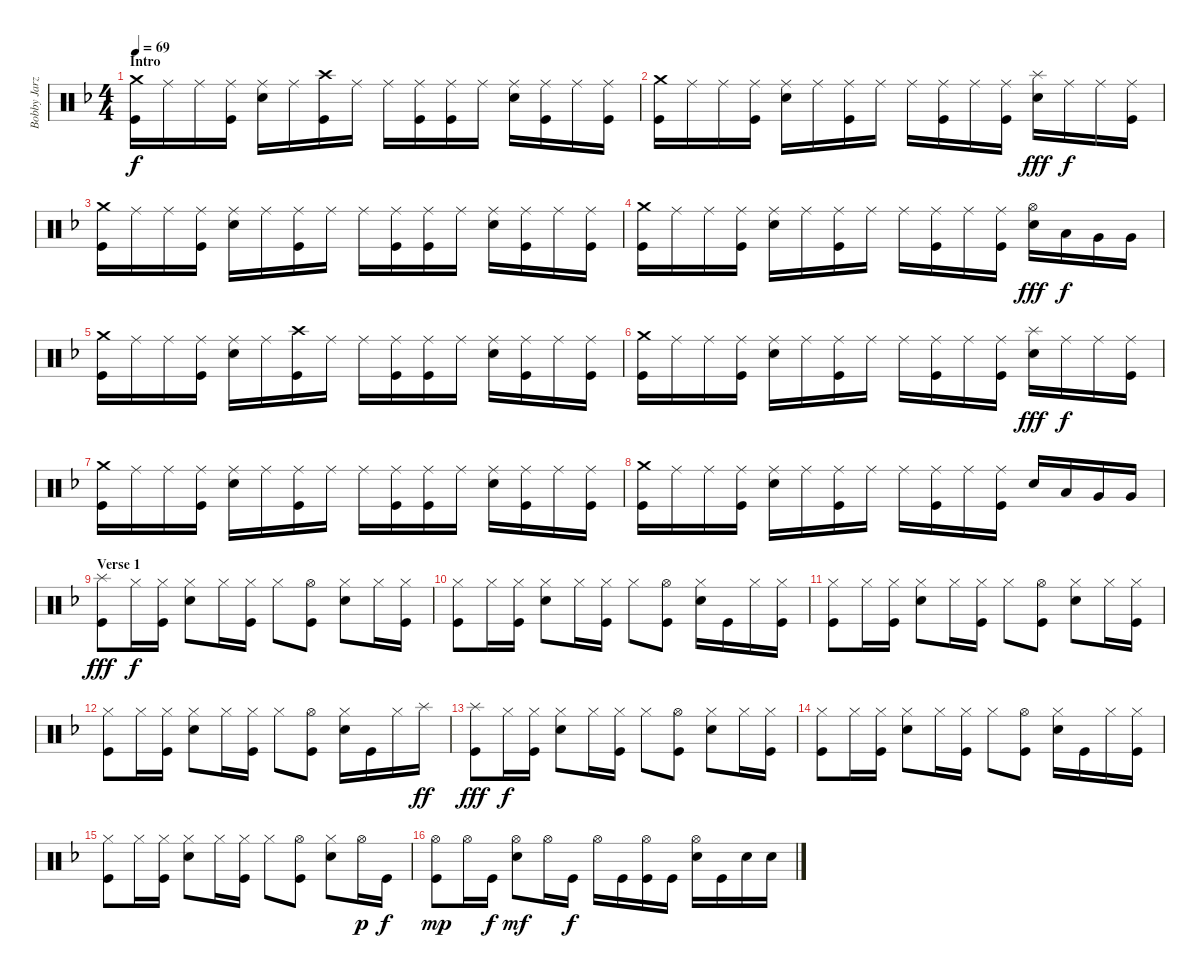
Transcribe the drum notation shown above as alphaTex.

\track ("Bobby Jarzombek" "Bobby Jarz") {instrument percussion}
\staff {score}
\articulation defaults
\ts (4 4)
\section ("" "Intro")
\tempo 69
\clef neutral
\ks dminor
("Crash medium (hit)" "Kick (hit)").16{dy f} "Ride (middle)".16 "Ride (middle)".16 ("Ride (middle)" "Kick (hit)").16 ("Ride (middle)" "Electric Snare (hit)").16 "Ride (middle)".16 ("Crash high (hit)" "Kick (hit)").16 "Ride (middle)".16 "Ride (middle)".16 ("Ride (middle)" "Kick (hit)").16 ("Ride (middle)" "Kick (hit)").16 "Ride (middle)".16 ("Ride (middle)" "Electric Snare (hit)").16 ("Ride (middle)" "Kick (hit)").16 "Ride (middle)".16 ("Ride (middle)" "Kick (hit)").16 |
("Crash medium (hit)" "Kick (hit)").16 "Ride (middle)".16 "Ride (middle)".16 ("Ride (middle)" "Kick (hit)").16 ("Ride (middle)" "Electric Snare (hit)").16 "Ride (middle)".16 ("Ride (middle)" "Kick (hit)").16 "Ride (middle)".16 "Ride (middle)".16 ("Ride (middle)" "Kick (hit)").16 "Ride (middle)".16 ("Ride (middle)" "Kick (hit)").16 ("Splash (hit)" "Electric Snare (hit)").16{dy fff} "Ride (middle)".16{dy f} "Ride (middle)".16 ("Ride (middle)" "Kick (hit)").16 |
("Crash medium (hit)" "Kick (hit)").16 "Ride (middle)".16 "Ride (middle)".16 ("Ride (middle)" "Kick (hit)").16 ("Ride (middle)" "Electric Snare (hit)").16 "Ride (middle)".16 ("Ride (middle)" "Kick (hit)").16 "Ride (middle)".16 "Ride (middle)".16 ("Ride (middle)" "Kick (hit)").16 ("Ride (middle)" "Kick (hit)").16 "Ride (middle)".16 ("Ride (middle)" "Electric Snare (hit)").16 ("Ride (middle)" "Kick (hit)").16 "Ride (middle)".16 ("Ride (middle)" "Kick (hit)").16 |
("Crash medium (hit)" "Kick (hit)").16 "Ride (middle)".16 "Ride (middle)".16 ("Ride (middle)" "Kick (hit)").16 ("Ride (middle)" "Electric Snare (hit)").16 "Ride (middle)".16 ("Ride (middle)" "Kick (hit)").16 "Ride (middle)".16 "Ride (middle)".16 ("Ride (middle)" "Kick (hit)").16 "Ride (middle)".16 ("Ride (middle)" "Kick (hit)").16 ("Hi-Hat (open)" "Electric Snare (hit)").16{dy fff} "Low Tom (hit)".16{dy f} "Very Low Tom (hit)".16 "Very Low Tom (hit)".16 |
("Crash medium (hit)" "Kick (hit)").16 "Ride (middle)".16 "Ride (middle)".16 ("Ride (middle)" "Kick (hit)").16 ("Ride (middle)" "Electric Snare (hit)").16 "Ride (middle)".16 ("Crash high (hit)" "Kick (hit)").16 "Ride (middle)".16 "Ride (middle)".16 ("Ride (middle)" "Kick (hit)").16 ("Ride (middle)" "Kick (hit)").16 "Ride (middle)".16 ("Ride (middle)" "Electric Snare (hit)").16 ("Ride (middle)" "Kick (hit)").16 "Ride (middle)".16 ("Ride (middle)" "Kick (hit)").16 |
("Crash medium (hit)" "Kick (hit)").16 "Ride (middle)".16 "Ride (middle)".16 ("Ride (middle)" "Kick (hit)").16 ("Ride (middle)" "Electric Snare (hit)").16 "Ride (middle)".16 ("Ride (middle)" "Kick (hit)").16 "Ride (middle)".16 "Ride (middle)".16 ("Ride (middle)" "Kick (hit)").16 "Ride (middle)".16 ("Ride (middle)" "Kick (hit)").16 ("Splash (hit)" "Electric Snare (hit)").16{dy fff} "Ride (middle)".16{dy f} "Ride (middle)".16 ("Ride (middle)" "Kick (hit)").16 |
("Crash medium (hit)" "Kick (hit)").16 "Ride (middle)".16 "Ride (middle)".16 ("Ride (middle)" "Kick (hit)").16 ("Ride (middle)" "Electric Snare (hit)").16 "Ride (middle)".16 ("Ride (middle)" "Kick (hit)").16 "Ride (middle)".16 "Ride (middle)".16 ("Ride (middle)" "Kick (hit)").16 ("Ride (middle)" "Kick (hit)").16 "Ride (middle)".16 ("Ride (middle)" "Electric Snare (hit)").16 ("Ride (middle)" "Kick (hit)").16 "Ride (middle)".16 ("Ride (middle)" "Kick (hit)").16 |
("Crash medium (hit)" "Kick (hit)").16 "Ride (middle)".16 "Ride (middle)".16 ("Ride (middle)" "Kick (hit)").16 ("Ride (middle)" "Electric Snare (hit)").16 "Ride (middle)".16 ("Ride (middle)" "Kick (hit)").16 "Ride (middle)".16 "Ride (middle)".16 ("Ride (middle)" "Kick (hit)").16 "Ride (middle)".16 ("Ride (middle)" "Kick (hit)").16 "Electric Snare (hit)".16 "Low Tom (hit)".16 "Very Low Tom (hit)".16 "Very Low Tom (hit)".16 |
\section ("" "Verse 1")
("Splash (hit)" "Kick (hit)").8{dy fff} "Hi-Hat (closed)".16{dy f} ("Hi-Hat (closed)" "Kick (hit)").16 ("Hi-Hat (closed)" "Electric Snare (hit)").8 "Hi-Hat (closed)".16 ("Hi-Hat (closed)" "Kick (hit)").16 "Hi-Hat (closed)".8 ("Hi-Hat (open)" "Kick (hit)").8 ("Hi-Hat (closed)" "Electric Snare (hit)").8 "Hi-Hat (closed)".16 ("Hi-Hat (closed)" "Kick (hit)").16 |
("Hi-Hat (closed)" "Kick (hit)").8 "Hi-Hat (closed)".16 ("Hi-Hat (closed)" "Kick (hit)").16 ("Hi-Hat (closed)" "Electric Snare (hit)").8 "Hi-Hat (closed)".16 ("Hi-Hat (closed)" "Kick (hit)").16 "Hi-Hat (closed)".8 ("Hi-Hat (open)" "Kick (hit)").8 ("Hi-Hat (closed)" "Electric Snare (hit)").16 "Kick (hit)".16 "Hi-Hat (closed)".16 ("Hi-Hat (closed)" "Kick (hit)").16 |
("Hi-Hat (closed)" "Kick (hit)").8 "Hi-Hat (closed)".16 ("Hi-Hat (closed)" "Kick (hit)").16 ("Hi-Hat (closed)" "Electric Snare (hit)").8 "Hi-Hat (closed)".16 ("Hi-Hat (closed)" "Kick (hit)").16 "Hi-Hat (closed)".8 ("Hi-Hat (open)" "Kick (hit)").8 ("Hi-Hat (closed)" "Electric Snare (hit)").8 "Hi-Hat (closed)".16 ("Hi-Hat (closed)" "Kick (hit)").16 |
("Hi-Hat (closed)" "Kick (hit)").8 "Hi-Hat (closed)".16 ("Hi-Hat (closed)" "Kick (hit)").16 ("Hi-Hat (closed)" "Electric Snare (hit)").8 "Hi-Hat (closed)".16 ("Hi-Hat (closed)" "Kick (hit)").16 "Hi-Hat (closed)".8 ("Hi-Hat (open)" "Kick (hit)").8 ("Hi-Hat (closed)" "Electric Snare (hit)").16 "Kick (hit)".16 "Hi-Hat (closed)".16 "Splash (hit)".16{dy ff} |
("Splash (hit)" "Kick (hit)").8{dy fff} "Hi-Hat (closed)".16{dy f} ("Hi-Hat (closed)" "Kick (hit)").16 ("Hi-Hat (closed)" "Electric Snare (hit)").8 "Hi-Hat (closed)".16 ("Hi-Hat (closed)" "Kick (hit)").16 "Hi-Hat (closed)".8 ("Hi-Hat (open)" "Kick (hit)").8 ("Hi-Hat (closed)" "Electric Snare (hit)").8 "Hi-Hat (closed)".16 ("Hi-Hat (closed)" "Kick (hit)").16 |
("Hi-Hat (closed)" "Kick (hit)").8 "Hi-Hat (closed)".16 ("Hi-Hat (closed)" "Kick (hit)").16 ("Hi-Hat (closed)" "Electric Snare (hit)").8 "Hi-Hat (closed)".16 ("Hi-Hat (closed)" "Kick (hit)").16 "Hi-Hat (closed)".8 ("Hi-Hat (open)" "Kick (hit)").8 ("Hi-Hat (closed)" "Electric Snare (hit)").16 "Kick (hit)".16 "Hi-Hat (closed)".16 ("Hi-Hat (closed)" "Kick (hit)").16 |
("Hi-Hat (closed)" "Kick (hit)").8 "Hi-Hat (closed)".16 ("Hi-Hat (closed)" "Kick (hit)").16 ("Hi-Hat (closed)" "Electric Snare (hit)").8 "Hi-Hat (closed)".16 ("Hi-Hat (closed)" "Kick (hit)").16 "Hi-Hat (closed)".8 ("Hi-Hat (open)" "Kick (hit)").8 ("Hi-Hat (closed)" "Electric Snare (hit)").8 "Hi-Hat (open)".16{dy p} "Kick (hit)".16{dy f} |
("Hi-Hat (open)" "Kick (hit)").8{dy mp} "Hi-Hat (open)".16 "Kick (hit)".16{dy f} ("Hi-Hat (open)" "Electric Snare (hit)").8{dy mf} "Hi-Hat (open)".16 "Kick (hit)".16{dy f} "Hi-Hat (open)".16 "Kick (hit)".16 ("Hi-Hat (open)" "Kick (hit)").16 "Kick (hit)".16 ("Hi-Hat (open)" "Electric Snare (hit)").16 "Kick (hit)".16 "Electric Snare (hit)".16 "Electric Snare (hit)".16
